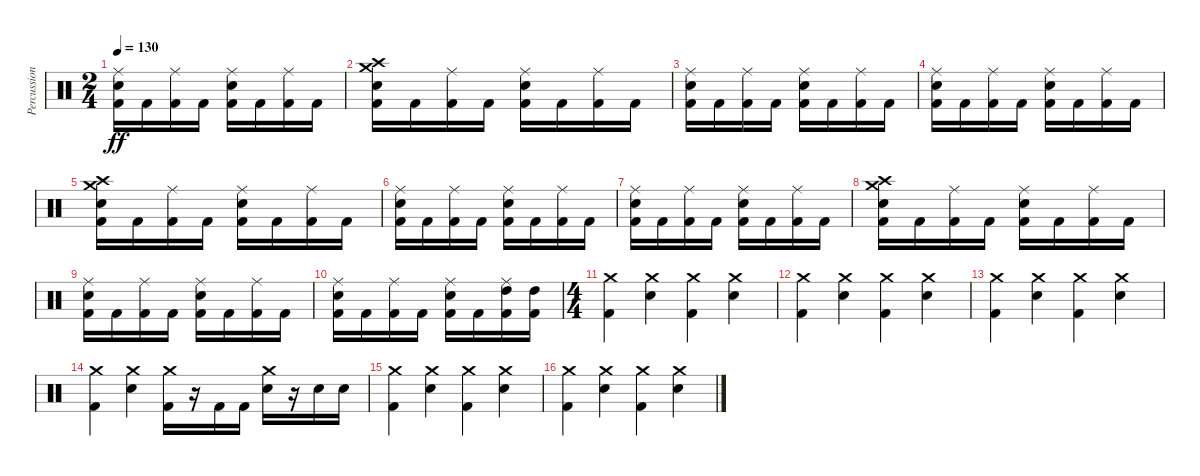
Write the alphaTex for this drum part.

\track ("Percussion" "Percussion") {instrument percussion}
\staff {score}
\articulation defaults
\ts (2 4)
\tempo 130
\clef neutral
\ks c
("Ride (middle)" "Snare (hit) 2" "Kick (hit) 2").16{dy ff} "Kick (hit) 2".16 ("Ride (middle)" "Kick (hit) 2").16 "Kick (hit) 2".16 ("Ride (middle)" "Snare (hit) 2" "Kick (hit) 2").16 "Kick (hit) 2".16 ("Ride (middle)" "Kick (hit) 2").16 "Kick (hit) 2".16 |
("Crash medium (hit)" "Crash high (hit)" "Snare (hit) 2" "Kick (hit) 2").16 "Kick (hit) 2".16 ("Ride (middle)" "Kick (hit) 2").16 "Kick (hit) 2".16 ("Ride (middle)" "Snare (hit) 2" "Kick (hit) 2").16 "Kick (hit) 2".16 ("Ride (middle)" "Kick (hit) 2").16 "Kick (hit) 2".16 |
("Ride (middle)" "Snare (hit) 2" "Kick (hit) 2").16 "Kick (hit) 2".16 ("Ride (middle)" "Kick (hit) 2").16 "Kick (hit) 2".16 ("Ride (middle)" "Snare (hit) 2" "Kick (hit) 2").16 "Kick (hit) 2".16 ("Ride (middle)" "Kick (hit) 2").16 "Kick (hit) 2".16 |
("Ride (middle)" "Snare (hit) 2" "Kick (hit) 2").16 "Kick (hit) 2".16 ("Ride (middle)" "Kick (hit) 2").16 "Kick (hit) 2".16 ("Ride (middle)" "Snare (hit) 2" "Kick (hit) 2").16 "Kick (hit) 2".16 ("Ride (middle)" "Kick (hit) 2").16 "Kick (hit) 2".16 |
("Crash medium (hit)" "Crash high (hit)" "Snare (hit) 2" "Kick (hit) 2").16 "Kick (hit) 2".16 ("Ride (middle)" "Kick (hit) 2").16 "Kick (hit) 2".16 ("Ride (middle)" "Snare (hit) 2" "Kick (hit) 2").16 "Kick (hit) 2".16 ("Ride (middle)" "Kick (hit) 2").16 "Kick (hit) 2".16 |
("Ride (middle)" "Snare (hit) 2" "Kick (hit) 2").16 "Kick (hit) 2".16 ("Ride (middle)" "Kick (hit) 2").16 "Kick (hit) 2".16 ("Ride (middle)" "Snare (hit) 2" "Kick (hit) 2").16 "Kick (hit) 2".16 ("Ride (middle)" "Kick (hit) 2").16 "Kick (hit) 2".16 |
("Ride (middle)" "Snare (hit) 2" "Kick (hit) 2").16 "Kick (hit) 2".16 ("Ride (middle)" "Kick (hit) 2").16 "Kick (hit) 2".16 ("Ride (middle)" "Snare (hit) 2" "Kick (hit) 2").16 "Kick (hit) 2".16 ("Ride (middle)" "Kick (hit) 2").16 "Kick (hit) 2".16 |
("Crash medium (hit)" "Crash high (hit)" "Snare (hit) 2" "Kick (hit) 2").16 "Kick (hit) 2".16 ("Ride (middle)" "Kick (hit) 2").16 "Kick (hit) 2".16 ("Ride (middle)" "Snare (hit) 2" "Kick (hit) 2").16 "Kick (hit) 2".16 ("Ride (middle)" "Kick (hit) 2").16 "Kick (hit) 2".16 |
("Ride (middle)" "Snare (hit) 2" "Kick (hit) 2").16 "Kick (hit) 2".16 ("Ride (middle)" "Kick (hit) 2").16 "Kick (hit) 2".16 ("Ride (middle)" "Snare (hit) 2" "Kick (hit) 2").16 "Kick (hit) 2".16 ("Ride (middle)" "Kick (hit) 2").16 "Kick (hit) 2".16 |
("Ride (middle)" "Snare (hit) 2" "Kick (hit) 2").16 "Kick (hit) 2".16 ("Ride (middle)" "Kick (hit) 2").16 "Kick (hit) 2".16 ("Ride (middle)" "Snare (hit) 2" "Kick (hit) 2").16 "Kick (hit) 2".16 ("Ride (middle)" "High Tom (hit)" "Kick (hit) 2").16 ("High Tom (hit)" "Kick (hit) 2").16 |
\ts (4 4)
("Crash medium (hit)" "Kick (hit) 2").4 ("Crash medium (hit)" "Snare (hit) 2").4 ("Crash medium (hit)" "Kick (hit) 2").4 ("Crash medium (hit)" "Snare (hit) 2").4 |
("Crash medium (hit)" "Kick (hit) 2").4 ("Crash medium (hit)" "Snare (hit) 2").4 ("Crash medium (hit)" "Kick (hit) 2").4 ("Crash medium (hit)" "Snare (hit) 2").4 |
("Crash medium (hit)" "Kick (hit) 2").4 ("Crash medium (hit)" "Snare (hit) 2").4 ("Crash medium (hit)" "Kick (hit) 2").4 ("Crash medium (hit)" "Snare (hit) 2").4 |
("Crash medium (hit)" "Kick (hit) 2").4 ("Crash medium (hit)" "Snare (hit) 2").4 ("Crash medium (hit)" "Kick (hit) 2").16 r.16 "Kick (hit) 2".16 "Kick (hit) 2".16 ("Crash medium (hit)" "Snare (hit) 2").16 r.16 "Snare (hit) 2".16 "Snare (hit) 2".16 |
("Crash medium (hit)" "Kick (hit) 2").4 ("Crash medium (hit)" "Snare (hit) 2").4 ("Crash medium (hit)" "Kick (hit) 2").4 ("Crash medium (hit)" "Snare (hit) 2").4 |
("Crash medium (hit)" "Kick (hit) 2").4 ("Crash medium (hit)" "Snare (hit) 2").4 ("Crash medium (hit)" "Kick (hit) 2").4 ("Crash medium (hit)" "Snare (hit) 2").4
